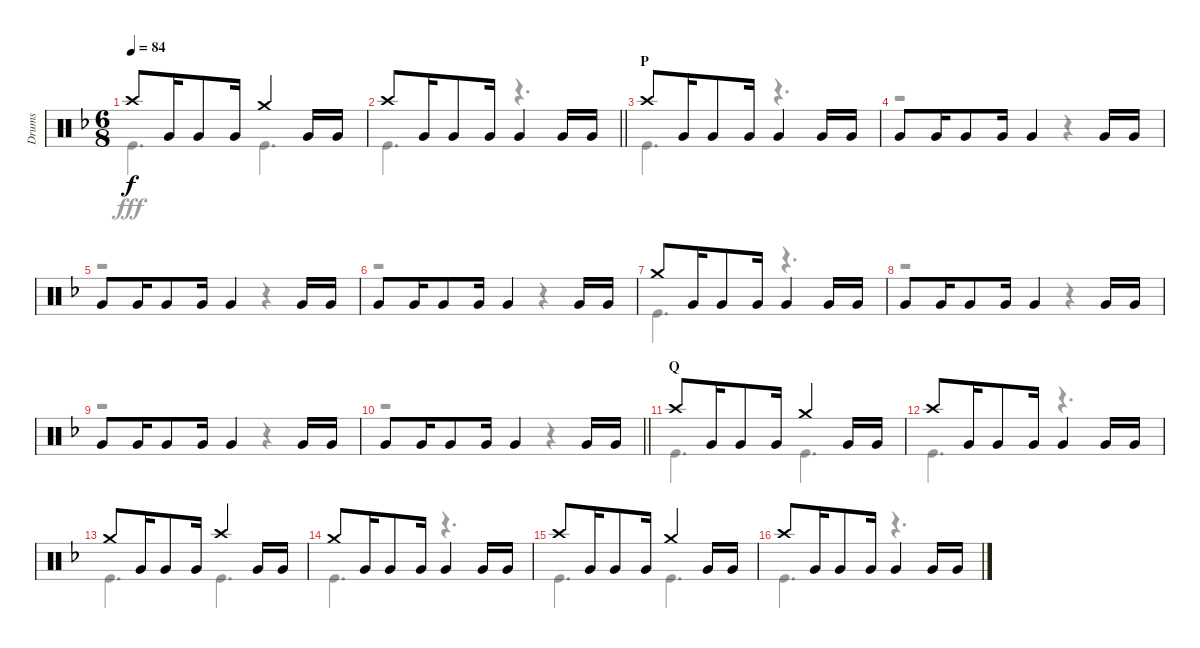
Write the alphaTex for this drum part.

\track ("Drums" "Drums") {instrument percussion}
\staff {score}
\articulation defaults
\voice
\ts (6 8)
\tempo 84
\clef neutral
\ks f "Crash high (hit)".8{dy f} "Very Low Tom (hit)".16 "Very Low Tom (hit)".8 "Very Low Tom (hit)".16 "Crash medium (hit)".4 "Very Low Tom (hit)".16 "Very Low Tom (hit)".16
|
\barLineRight lightlight "Crash high (hit)".8 "Very Low Tom (hit)".16 "Very Low Tom (hit)".8 "Very Low Tom (hit)".16 "Very Low Tom (hit)".4 "Very Low Tom (hit)".16 "Very Low Tom (hit)".16
|
\section ("" "P")
"Crash high (hit)".8 "Very Low Tom (hit)".16 "Very Low Tom (hit)".8 "Very Low Tom (hit)".16 "Very Low Tom (hit)".4 "Very Low Tom (hit)".16 "Very Low Tom (hit)".16 |
"Very Low Tom (hit)".8 "Very Low Tom (hit)".16 "Very Low Tom (hit)".8 "Very Low Tom (hit)".16 "Very Low Tom (hit)".4 "Very Low Tom (hit)".16 "Very Low Tom (hit)".16 |
"Very Low Tom (hit)".8 "Very Low Tom (hit)".16 "Very Low Tom (hit)".8 "Very Low Tom (hit)".16 "Very Low Tom (hit)".4 "Very Low Tom (hit)".16 "Very Low Tom (hit)".16 |
"Very Low Tom (hit)".8 "Very Low Tom (hit)".16 "Very Low Tom (hit)".8 "Very Low Tom (hit)".16 "Very Low Tom (hit)".4 "Very Low Tom (hit)".16 "Very Low Tom (hit)".16 |
"Crash medium (hit)".8 "Very Low Tom (hit)".16 "Very Low Tom (hit)".8 "Very Low Tom (hit)".16 "Very Low Tom (hit)".4 "Very Low Tom (hit)".16 "Very Low Tom (hit)".16 |
"Very Low Tom (hit)".8 "Very Low Tom (hit)".16 "Very Low Tom (hit)".8 "Very Low Tom (hit)".16 "Very Low Tom (hit)".4 "Very Low Tom (hit)".16 "Very Low Tom (hit)".16 |
"Very Low Tom (hit)".8 "Very Low Tom (hit)".16 "Very Low Tom (hit)".8 "Very Low Tom (hit)".16 "Very Low Tom (hit)".4 "Very Low Tom (hit)".16 "Very Low Tom (hit)".16 |
\barLineRight lightlight "Very Low Tom (hit)".8 "Very Low Tom (hit)".16 "Very Low Tom (hit)".8 "Very Low Tom (hit)".16 "Very Low Tom (hit)".4 "Very Low Tom (hit)".16 "Very Low Tom (hit)".16
|
\section ("" "Q")
"Crash high (hit)".8 "Very Low Tom (hit)".16 "Very Low Tom (hit)".8 "Very Low Tom (hit)".16 "Crash medium (hit)".4 "Very Low Tom (hit)".16 "Very Low Tom (hit)".16 |
"Crash high (hit)".8 "Very Low Tom (hit)".16 "Very Low Tom (hit)".8 "Very Low Tom (hit)".16 "Very Low Tom (hit)".4 "Very Low Tom (hit)".16 "Very Low Tom (hit)".16 |
"Crash medium (hit)".8 "Very Low Tom (hit)".16 "Very Low Tom (hit)".8 "Very Low Tom (hit)".16 "Crash high (hit)".4 "Very Low Tom (hit)".16 "Very Low Tom (hit)".16 |
"Crash medium (hit)".8 "Very Low Tom (hit)".16 "Very Low Tom (hit)".8 "Very Low Tom (hit)".16 "Very Low Tom (hit)".4 "Very Low Tom (hit)".16 "Very Low Tom (hit)".16 |
"Crash high (hit)".8 "Very Low Tom (hit)".16 "Very Low Tom (hit)".8 "Very Low Tom (hit)".16 "Crash medium (hit)".4 "Very Low Tom (hit)".16 "Very Low Tom (hit)".16 |
"Crash high (hit)".8 "Very Low Tom (hit)".16 "Very Low Tom (hit)".8 "Very Low Tom (hit)".16 "Very Low Tom (hit)".4 "Very Low Tom (hit)".16 "Very Low Tom (hit)".16
\voice
\clef neutral
\ottava regular
\simile none
\ks f "Kick (hit)".4{d dy fff} "Kick (hit)".4{d}
|
\barLineRight lightlight "Kick (hit)".4{d}
r.4{d} |
"Kick (hit)".4{d} r.4{d} |
r.2 r.4 |
r.2 r.4 |
r.2 r.4 |
"Kick (hit)".4{d} r.4{d} |
r.2 r.4 |
r.2 r.4 |
\barLineRight lightlight
r.2 r.4 |
"Kick (hit)".4{d} "Kick (hit)".4{d} |
"Kick (hit)".4{d} r.4{d} |
"Kick (hit)".4{d} "Kick (hit)".4{d} |
"Kick (hit)".4{d} r.4{d} |
"Kick (hit)".4{d} "Kick (hit)".4{d} |
"Kick (hit)".4{d} r.4{d}
